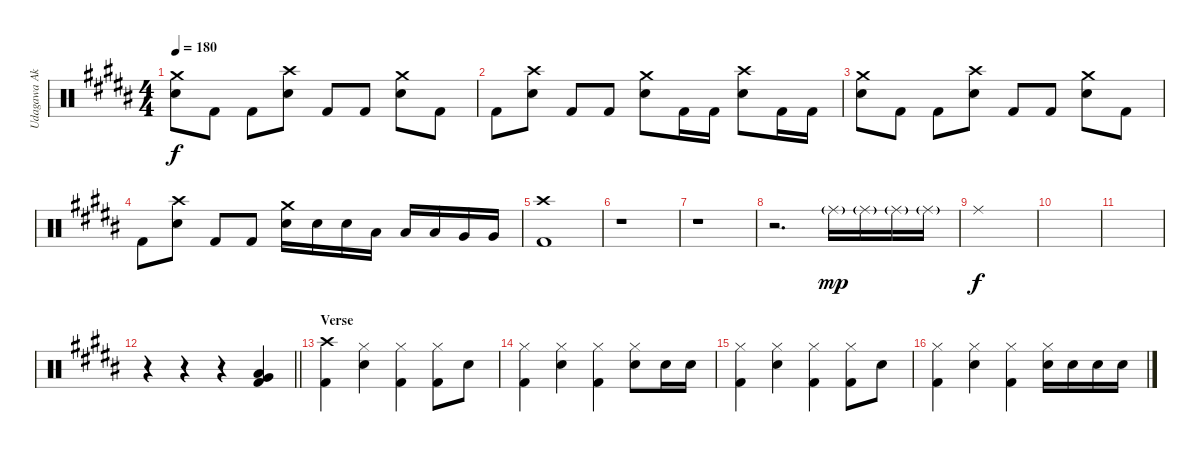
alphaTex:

\track ("Udagawa Ako" "Udagawa Ak") {instrument percussion}
\staff {score}
\articulation defaults
\ts (4 4)
\tempo 180
\clef neutral
\ks b
("Crash medium (hit)" "Electric Snare (hit)").8{dy f} "Kick (hit) 2".8 "Kick (hit) 2".8 ("Crash high (hit)" "Electric Snare (hit)").8 "Kick (hit) 2".8 "Kick (hit) 2".8 ("Crash medium (hit)" "Electric Snare (hit)").8 "Kick (hit) 2".8 |
"Kick (hit) 2".8 ("Crash high (hit)" "Electric Snare (hit)").8 "Kick (hit) 2".8 "Kick (hit) 2".8 ("Crash medium (hit)" "Electric Snare (hit)").8 "Kick (hit) 2".16 "Kick (hit) 2".16 ("Crash high (hit)" "Electric Snare (hit)").8 "Kick (hit) 2".16 "Kick (hit) 2".16 |
("Crash medium (hit)" "Electric Snare (hit)").8 "Kick (hit) 2".8 "Kick (hit) 2".8 ("Crash high (hit)" "Electric Snare (hit)").8 "Kick (hit) 2".8 "Kick (hit) 2".8 ("Crash medium (hit)" "Electric Snare (hit)").8 "Kick (hit) 2".8 |
"Kick (hit) 2".8 ("Crash high (hit)" "Electric Snare (hit)").8 "Kick (hit) 2".8 "Kick (hit) 2".8 ("Crash medium (hit)" "Electric Snare (hit)").16 "Electric Snare (hit)".16 "Electric Snare (hit)".16 "Low Tom (hit)".16 "Low Tom (hit)".16 "Low Tom (hit)".16 "Very Low Tom (hit)".16 "Very Low Tom (hit)".16 |
("Crash high (hit)" "Kick (hit) 2").1 |
r.1 |
r.1 |
r.2{d} "Ride (middle)"{g}.16{dy mp} "Ride (middle)"{g}.16 "Ride (middle)"{g}.16 "Ride (middle)"{g}.16 |
"Ride (middle)".1{dy f} |
|
|
\barLineRight lightlight
r.4 r.4 r.4 ("Very Low Tom (hit)" "Low Tom (hit)" "Kick (hit) 2").4{bu 60} |
\section ("" "Verse")
("Crash high (hit)" "Kick (hit) 2").4 ("Hi-Hat (closed)" "Electric Snare (hit)").4 ("Hi-Hat (closed)" "Kick (hit) 2").4 ("Hi-Hat (closed)" "Kick (hit) 2").8 "Electric Snare (hit)".8 |
("Hi-Hat (closed)" "Kick (hit) 2").4 ("Hi-Hat (closed)" "Electric Snare (hit)").4 ("Hi-Hat (closed)" "Kick (hit) 2").4 ("Hi-Hat (closed)" "Electric Snare (hit)").8 "Electric Snare (hit)".16 "Electric Snare (hit)".16 |
("Hi-Hat (closed)" "Kick (hit) 2").4 ("Hi-Hat (closed)" "Electric Snare (hit)").4 ("Hi-Hat (closed)" "Kick (hit) 2").4 ("Hi-Hat (closed)" "Kick (hit) 2").8 "Electric Snare (hit)".8 |
("Hi-Hat (closed)" "Kick (hit) 2").4 ("Hi-Hat (closed)" "Electric Snare (hit)").4 ("Hi-Hat (closed)" "Kick (hit) 2").4 ("Hi-Hat (closed)" "Electric Snare (hit)").16 "Electric Snare (hit)".16 "Electric Snare (hit)".16 "Electric Snare (hit)".16
